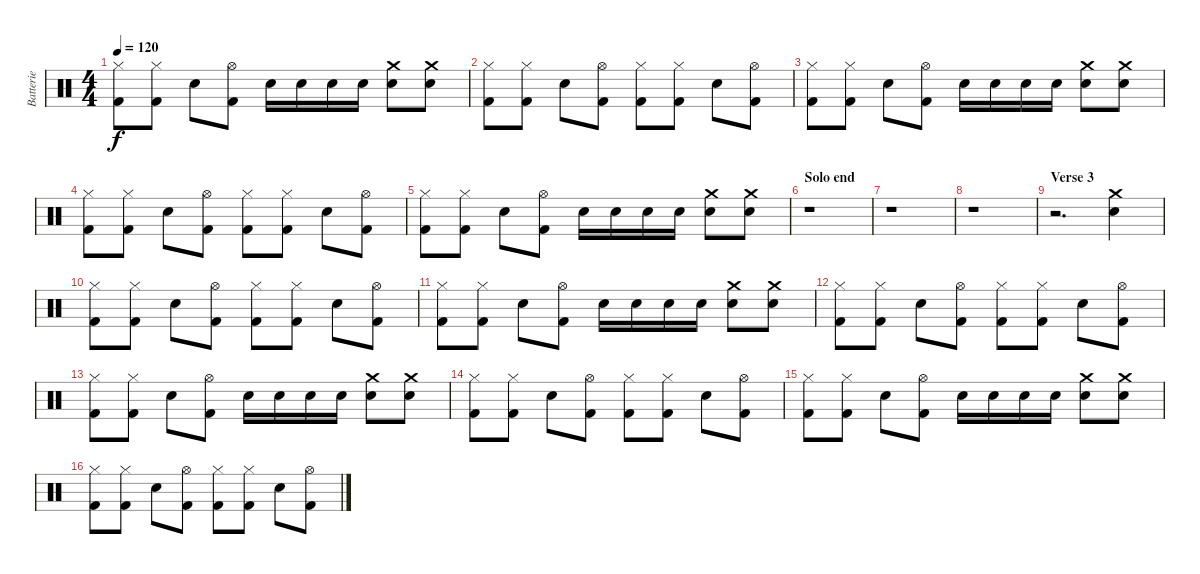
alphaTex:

\track ("Batterie" "Batterie") {instrument percussion}
\staff {score}
\articulation defaults
\ts (4 4)
\tempo 120
\clef neutral
\ks c
("Hi-Hat (closed)" "Kick (hit) 2").8{dy f} ("Hi-Hat (closed)" "Kick (hit) 2").8 "Snare (hit) 2".8 ("Hi-Hat (open)" "Kick (hit) 2").8 "Snare (hit) 2".16 "Snare (hit) 2".16 "Snare (hit) 2".16 "Snare (hit) 2".16 ("Crash medium (hit)" "Snare (hit) 2").8 ("Crash medium (hit)" "Snare (hit) 2").8 |
("Hi-Hat (closed)" "Kick (hit) 2").8 ("Hi-Hat (closed)" "Kick (hit) 2").8 "Snare (hit) 2".8 ("Hi-Hat (open)" "Kick (hit) 2").8 ("Hi-Hat (closed)" "Kick (hit) 2").8 ("Hi-Hat (closed)" "Kick (hit) 2").8 "Snare (hit) 2".8 ("Hi-Hat (open)" "Kick (hit) 2").8 |
("Hi-Hat (closed)" "Kick (hit) 2").8 ("Hi-Hat (closed)" "Kick (hit) 2").8 "Snare (hit) 2".8 ("Hi-Hat (open)" "Kick (hit) 2").8 "Snare (hit) 2".16 "Snare (hit) 2".16 "Snare (hit) 2".16 "Snare (hit) 2".16 ("Crash medium (hit)" "Snare (hit) 2").8 ("Crash medium (hit)" "Snare (hit) 2").8 |
("Hi-Hat (closed)" "Kick (hit) 2").8 ("Hi-Hat (closed)" "Kick (hit) 2").8 "Snare (hit) 2".8 ("Hi-Hat (open)" "Kick (hit) 2").8 ("Hi-Hat (closed)" "Kick (hit) 2").8 ("Hi-Hat (closed)" "Kick (hit) 2").8 "Snare (hit) 2".8 ("Hi-Hat (open)" "Kick (hit) 2").8 |
("Hi-Hat (closed)" "Kick (hit) 2").8 ("Hi-Hat (closed)" "Kick (hit) 2").8 "Snare (hit) 2".8 ("Hi-Hat (open)" "Kick (hit) 2").8 "Snare (hit) 2".16 "Snare (hit) 2".16 "Snare (hit) 2".16 "Snare (hit) 2".16 ("Crash medium (hit)" "Snare (hit) 2").8 ("Crash medium (hit)" "Snare (hit) 2").8 |
\section ("" "Solo end")
r.1 |
r.1 |
r.1 |
\section ("" "Verse 3")
r.2{d} ("Crash medium (hit)" "Snare (hit) 2").4 |
("Hi-Hat (closed)" "Kick (hit) 2").8 ("Hi-Hat (closed)" "Kick (hit) 2").8 "Snare (hit) 2".8 ("Hi-Hat (open)" "Kick (hit) 2").8 ("Hi-Hat (closed)" "Kick (hit) 2").8 ("Hi-Hat (closed)" "Kick (hit) 2").8 "Snare (hit) 2".8 ("Hi-Hat (open)" "Kick (hit) 2").8 |
("Hi-Hat (closed)" "Kick (hit) 2").8 ("Hi-Hat (closed)" "Kick (hit) 2").8 "Snare (hit) 2".8 ("Hi-Hat (open)" "Kick (hit) 2").8 "Snare (hit) 2".16 "Snare (hit) 2".16 "Snare (hit) 2".16 "Snare (hit) 2".16 ("Crash medium (hit)" "Snare (hit) 2").8 ("Crash medium (hit)" "Snare (hit) 2").8 |
("Hi-Hat (closed)" "Kick (hit) 2").8 ("Hi-Hat (closed)" "Kick (hit) 2").8 "Snare (hit) 2".8 ("Hi-Hat (open)" "Kick (hit) 2").8 ("Hi-Hat (closed)" "Kick (hit) 2").8 ("Hi-Hat (closed)" "Kick (hit) 2").8 "Snare (hit) 2".8 ("Hi-Hat (open)" "Kick (hit) 2").8 |
("Hi-Hat (closed)" "Kick (hit) 2").8 ("Hi-Hat (closed)" "Kick (hit) 2").8 "Snare (hit) 2".8 ("Hi-Hat (open)" "Kick (hit) 2").8 "Snare (hit) 2".16 "Snare (hit) 2".16 "Snare (hit) 2".16 "Snare (hit) 2".16 ("Crash medium (hit)" "Snare (hit) 2").8 ("Crash medium (hit)" "Snare (hit) 2").8 |
("Hi-Hat (closed)" "Kick (hit) 2").8 ("Hi-Hat (closed)" "Kick (hit) 2").8 "Snare (hit) 2".8 ("Hi-Hat (open)" "Kick (hit) 2").8 ("Hi-Hat (closed)" "Kick (hit) 2").8 ("Hi-Hat (closed)" "Kick (hit) 2").8 "Snare (hit) 2".8 ("Hi-Hat (open)" "Kick (hit) 2").8 |
("Hi-Hat (closed)" "Kick (hit) 2").8 ("Hi-Hat (closed)" "Kick (hit) 2").8 "Snare (hit) 2".8 ("Hi-Hat (open)" "Kick (hit) 2").8 "Snare (hit) 2".16 "Snare (hit) 2".16 "Snare (hit) 2".16 "Snare (hit) 2".16 ("Crash medium (hit)" "Snare (hit) 2").8 ("Crash medium (hit)" "Snare (hit) 2").8 |
("Hi-Hat (closed)" "Kick (hit) 2").8 ("Hi-Hat (closed)" "Kick (hit) 2").8 "Snare (hit) 2".8 ("Hi-Hat (open)" "Kick (hit) 2").8 ("Hi-Hat (closed)" "Kick (hit) 2").8 ("Hi-Hat (closed)" "Kick (hit) 2").8 "Snare (hit) 2".8 ("Hi-Hat (open)" "Kick (hit) 2").8
